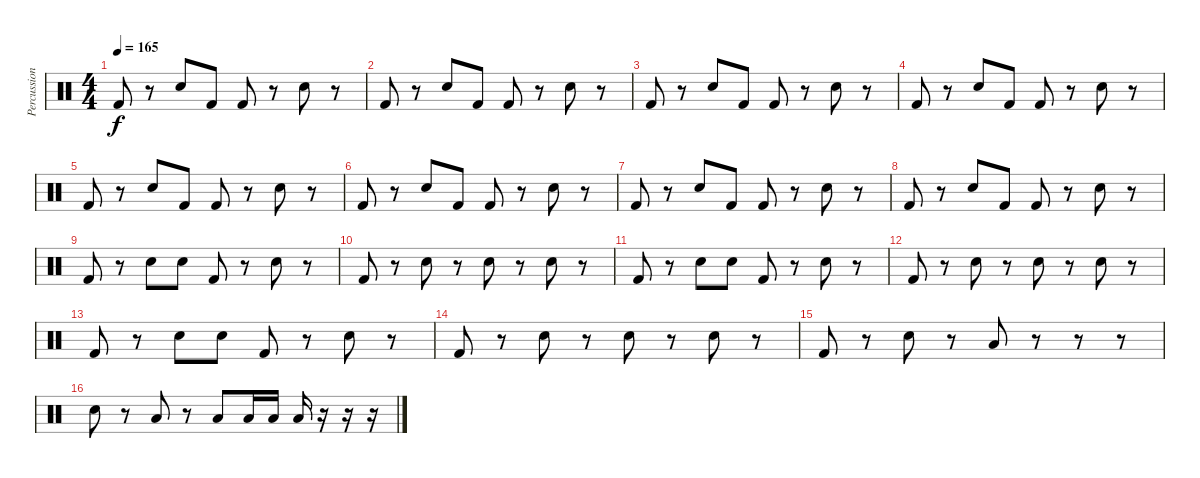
\track ("Percussion" "Percussion") {instrument percussion}
\staff {score}
\articulation defaults
\ts (4 4)
\tempo 165
\clef neutral
\ks c "Kick (hit) 2".8{dy f}
r.8 "Snare (hit) 2".8 "Kick (hit) 2".8 "Kick (hit) 2".8 r.8 "Snare (hit) 2".8 r.8 |
"Kick (hit) 2".8 r.8 "Snare (hit) 2".8 "Kick (hit) 2".8 "Kick (hit) 2".8 r.8 "Snare (hit) 2".8 r.8 |
"Kick (hit) 2".8 r.8 "Snare (hit) 2".8 "Kick (hit) 2".8 "Kick (hit) 2".8 r.8 "Snare (hit) 2".8 r.8 |
"Kick (hit) 2".8 r.8 "Snare (hit) 2".8 "Kick (hit) 2".8 "Kick (hit) 2".8 r.8 "Snare (hit) 2".8 r.8 |
"Kick (hit) 2".8 r.8 "Snare (hit) 2".8 "Kick (hit) 2".8 "Kick (hit) 2".8 r.8 "Snare (hit) 2".8 r.8 |
"Kick (hit) 2".8 r.8 "Snare (hit) 2".8 "Kick (hit) 2".8 "Kick (hit) 2".8 r.8 "Snare (hit) 2".8 r.8 |
"Kick (hit) 2".8 r.8 "Snare (hit) 2".8 "Kick (hit) 2".8 "Kick (hit) 2".8 r.8 "Snare (hit) 2".8 r.8 |
"Kick (hit) 2".8 r.8 "Snare (hit) 2".8 "Kick (hit) 2".8 "Kick (hit) 2".8 r.8 "Snare (hit) 2".8 r.8 |
"Kick (hit) 2".8 r.8 "Snare (hit) 2".8 "Snare (hit) 2".8 "Kick (hit) 2".8 r.8 "Snare (hit) 2".8 r.8 |
"Kick (hit) 2".8 r.8 "Snare (hit) 2".8 r.8 "Snare (hit) 2".8 r.8 "Snare (hit) 2".8 r.8 |
"Kick (hit) 2".8 r.8 "Snare (hit) 2".8 "Snare (hit) 2".8 "Kick (hit) 2".8 r.8 "Snare (hit) 2".8 r.8 |
"Kick (hit) 2".8 r.8 "Snare (hit) 2".8 r.8 "Snare (hit) 2".8 r.8 "Snare (hit) 2".8 r.8 |
"Kick (hit) 2".8 r.8 "Snare (hit) 2".8 "Snare (hit) 2".8 "Kick (hit) 2".8 r.8 "Snare (hit) 2".8 r.8 |
"Kick (hit) 2".8 r.8 "Snare (hit) 2".8 r.8 "Snare (hit) 2".8 r.8 "Snare (hit) 2".8 r.8 |
"Kick (hit) 2".8 r.8 "Snare (hit) 2".8 r.8 "Low Floor Tom (hit)".8 r.8 r.8 r.8 |
"Snare (hit) 2".8 r.8 "Low Floor Tom (hit)".8 r.8 "Low Floor Tom (hit)".8 "Low Floor Tom (hit)".16 "Low Floor Tom (hit)".16 "Low Floor Tom (hit)".16 r.16 r.16 r.16
